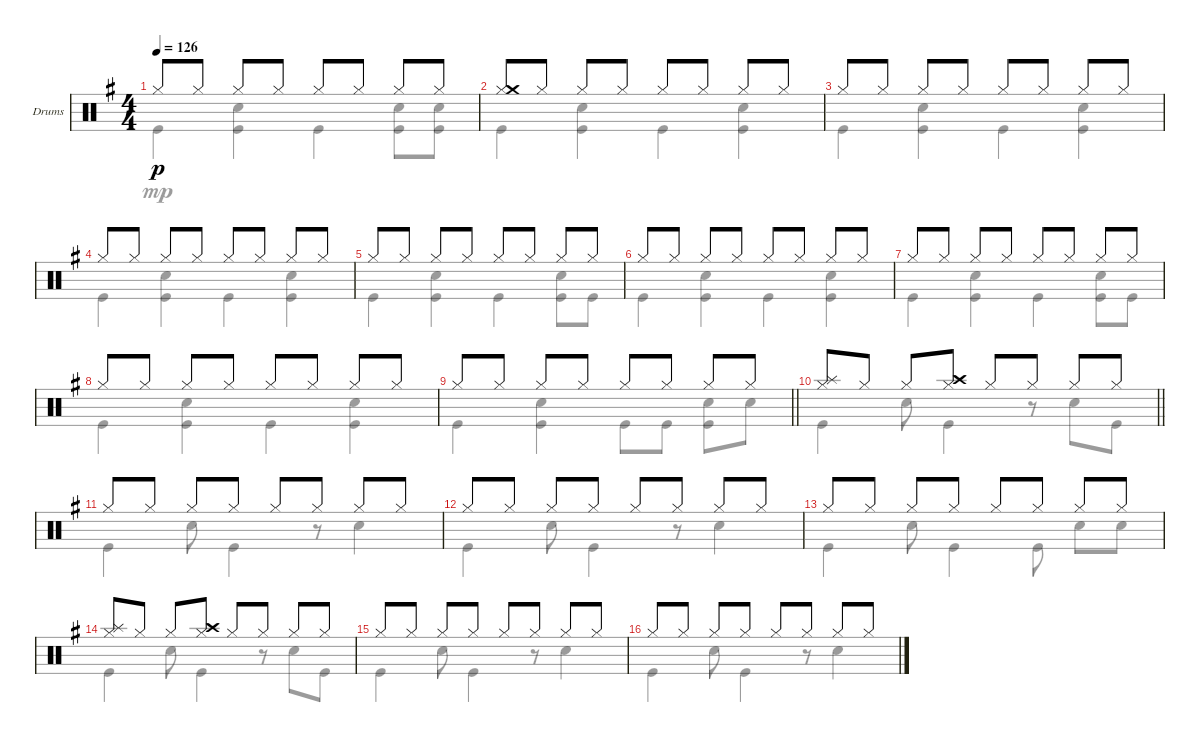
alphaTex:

\bracketExtendMode groupsimilarinstruments
\firstSystemTrackNameOrientation horizontal
\otherSystemsTrackNameOrientation horizontal
\track ("Ударные" "Drums") {instrument percussion}
\staff {score}
\articulation defaults
\voice
\ts (4 4)
\tempo 126
\clef neutral
\ks eminor "Hi-Hat (closed)".8{dy p} "Hi-Hat (closed)".8 "Hi-Hat (closed)".8 "Hi-Hat (closed)".8 "Hi-Hat (closed)".8 "Hi-Hat (closed)".8 "Hi-Hat (closed)".8 "Hi-Hat (closed)".8
|
("Hi-Hat (closed)" "Crash medium (hit)").8 "Hi-Hat (closed)".8 "Hi-Hat (closed)".8 "Hi-Hat (closed)".8 "Hi-Hat (closed)".8 "Hi-Hat (closed)".8 "Hi-Hat (closed)".8 "Hi-Hat (closed)".8 |
"Hi-Hat (closed)".8 "Hi-Hat (closed)".8 "Hi-Hat (closed)".8 "Hi-Hat (closed)".8 "Hi-Hat (closed)".8 "Hi-Hat (closed)".8 "Hi-Hat (closed)".8 "Hi-Hat (closed)".8 |
"Hi-Hat (closed)".8 "Hi-Hat (closed)".8 "Hi-Hat (closed)".8 "Hi-Hat (closed)".8 "Hi-Hat (closed)".8 "Hi-Hat (closed)".8 "Hi-Hat (closed)".8 "Hi-Hat (closed)".8 |
"Hi-Hat (closed)".8 "Hi-Hat (closed)".8 "Hi-Hat (closed)".8 "Hi-Hat (closed)".8 "Hi-Hat (closed)".8 "Hi-Hat (closed)".8 "Hi-Hat (closed)".8 "Hi-Hat (closed)".8 |
"Hi-Hat (closed)".8 "Hi-Hat (closed)".8 "Hi-Hat (closed)".8 "Hi-Hat (closed)".8 "Hi-Hat (closed)".8 "Hi-Hat (closed)".8 "Hi-Hat (closed)".8 "Hi-Hat (closed)".8 |
"Hi-Hat (closed)".8 "Hi-Hat (closed)".8 "Hi-Hat (closed)".8 "Hi-Hat (closed)".8 "Hi-Hat (closed)".8 "Hi-Hat (closed)".8 "Hi-Hat (closed)".8 "Hi-Hat (closed)".8 |
"Hi-Hat (closed)".8 "Hi-Hat (closed)".8 "Hi-Hat (closed)".8 "Hi-Hat (closed)".8 "Hi-Hat (closed)".8 "Hi-Hat (closed)".8 "Hi-Hat (closed)".8 "Hi-Hat (closed)".8 |
\barLineRight lightlight "Hi-Hat (closed)".8 "Hi-Hat (closed)".8 "Hi-Hat (closed)".8 "Hi-Hat (closed)".8 "Hi-Hat (closed)".8 "Hi-Hat (closed)".8 "Hi-Hat (closed)".8 "Hi-Hat (closed)".8
|
\section ("" "")
\barLineRight lightlight
("Hi-Hat (closed)" "Splash (hit)").8 "Hi-Hat (closed)".8 "Hi-Hat (closed)".8 ("Hi-Hat (closed)" "Crash high (hit)").8 "Hi-Hat (closed)".8 "Hi-Hat (closed)".8 "Hi-Hat (closed)".8 "Hi-Hat (closed)".8 |
\section ("" "")
"Hi-Hat (closed)".8 "Hi-Hat (closed)".8 "Hi-Hat (closed)".8 "Hi-Hat (closed)".8 "Hi-Hat (closed)".8 "Hi-Hat (closed)".8 "Hi-Hat (closed)".8 "Hi-Hat (closed)".8 |
"Hi-Hat (closed)".8 "Hi-Hat (closed)".8 "Hi-Hat (closed)".8 "Hi-Hat (closed)".8 "Hi-Hat (closed)".8 "Hi-Hat (closed)".8 "Hi-Hat (closed)".8 "Hi-Hat (closed)".8 |
"Hi-Hat (closed)".8 "Hi-Hat (closed)".8 "Hi-Hat (closed)".8 "Hi-Hat (closed)".8 "Hi-Hat (closed)".8 "Hi-Hat (closed)".8 "Hi-Hat (closed)".8 "Hi-Hat (closed)".8 |
("Hi-Hat (closed)" "Splash (hit)").8 "Hi-Hat (closed)".8 "Hi-Hat (closed)".8 ("Hi-Hat (closed)" "Crash high (hit)").8 "Hi-Hat (closed)".8 "Hi-Hat (closed)".8 "Hi-Hat (closed)".8 "Hi-Hat (closed)".8 |
"Hi-Hat (closed)".8 "Hi-Hat (closed)".8 "Hi-Hat (closed)".8 "Hi-Hat (closed)".8 "Hi-Hat (closed)".8 "Hi-Hat (closed)".8 "Hi-Hat (closed)".8 "Hi-Hat (closed)".8 |
"Hi-Hat (closed)".8 "Hi-Hat (closed)".8 "Hi-Hat (closed)".8 "Hi-Hat (closed)".8 "Hi-Hat (closed)".8 "Hi-Hat (closed)".8 "Hi-Hat (closed)".8 "Hi-Hat (closed)".8
\voice
\clef neutral
\ottava regular
\simile none
\ks eminor "Kick (hit)".4{dy mp}
("Snare (hit) 2" "Kick (hit)").4 "Kick (hit)".4 ("Snare (hit) 2" "Kick (hit)").8 ("Snare (hit) 2" "Kick (hit)").8 |
"Kick (hit)".4 ("Snare (hit) 2" "Kick (hit)").4 "Kick (hit)".4 ("Snare (hit) 2" "Kick (hit)").4 |
"Kick (hit)".4 ("Snare (hit) 2" "Kick (hit)").4 "Kick (hit)".4 ("Snare (hit) 2" "Kick (hit)").4 |
"Kick (hit)".4 ("Snare (hit) 2" "Kick (hit)").4 "Kick (hit)".4 ("Snare (hit) 2" "Kick (hit)").4 |
"Kick (hit)".4 ("Snare (hit) 2" "Kick (hit)").4 "Kick (hit)".4 ("Snare (hit) 2" "Kick (hit)").8 "Kick (hit)".8 |
"Kick (hit)".4 ("Snare (hit) 2" "Kick (hit)").4 "Kick (hit)".4 ("Snare (hit) 2" "Kick (hit)").4 |
"Kick (hit)".4 ("Snare (hit) 2" "Kick (hit)").4 "Kick (hit)".4 ("Snare (hit) 2" "Kick (hit)").8 "Kick (hit)".8 |
"Kick (hit)".4 ("Snare (hit) 2" "Kick (hit)").4 "Kick (hit)".4 ("Snare (hit) 2" "Kick (hit)").4 |
\barLineRight lightlight "Kick (hit)".4
("Snare (hit) 2" "Kick (hit)").4 "Kick (hit)".8 "Kick (hit)".8 ("Snare (hit) 2" "Kick (hit)").8 "Snare (hit) 2".8 |
\barLineRight lightlight "Kick (hit)".4 "Snare (hit) 2".8 "Kick (hit)".4
r.8 "Snare (hit) 2".8 "Kick (hit)".8 |
"Kick (hit)".4 "Snare (hit) 2".8 "Kick (hit)".4 r.8 "Snare (hit) 2".4 |
"Kick (hit)".4 "Snare (hit) 2".8 "Kick (hit)".4 r.8 "Snare (hit) 2".4 |
"Kick (hit)".4 "Snare (hit) 2".8 "Kick (hit)".4 "Kick (hit)".8 "Snare (hit) 2".8 "Snare (hit) 2".8 |
"Kick (hit)".4 "Snare (hit) 2".8 "Kick (hit)".4 r.8 "Snare (hit) 2".8 "Kick (hit)".8 |
"Kick (hit)".4 "Snare (hit) 2".8 "Kick (hit)".4 r.8 "Snare (hit) 2".4 |
"Kick (hit)".4 "Snare (hit) 2".8 "Kick (hit)".4 r.8 "Snare (hit) 2".4
